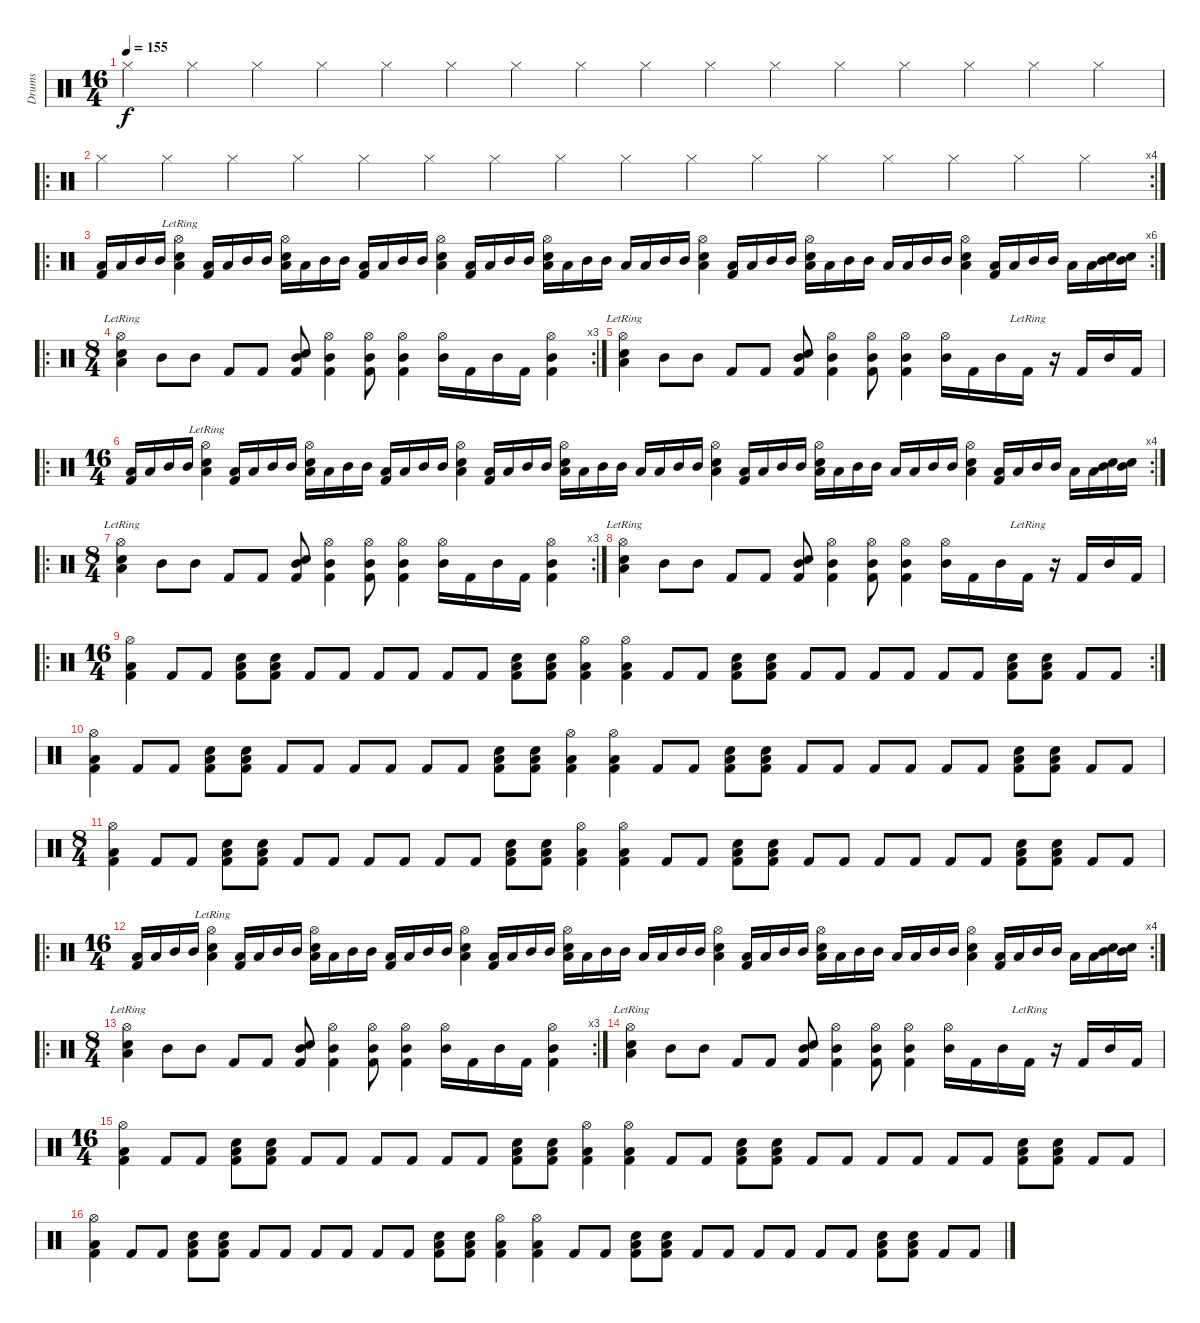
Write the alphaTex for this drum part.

\track ("Drums" "Drums") {instrument percussion}
\staff {score}
\articulation defaults
\ts (16 4)
\tempo 155
\clef neutral
\ks c "Hi-Hat (closed)".4{dy f} "Hi-Hat (closed)".4 "Hi-Hat (closed)".4 "Hi-Hat (closed)".4 "Hi-Hat (closed)".4 "Hi-Hat (closed)".4 "Hi-Hat (closed)".4 "Hi-Hat (closed)".4 "Hi-Hat (closed)".4 "Hi-Hat (closed)".4 "Hi-Hat (closed)".4 "Hi-Hat (closed)".4 "Hi-Hat (closed)".4 "Hi-Hat (closed)".4 "Hi-Hat (closed)".4 "Hi-Hat (closed)".4
|
\ro
\rc 4 "Hi-Hat (closed)".4 "Hi-Hat (closed)".4 "Hi-Hat (closed)".4 "Hi-Hat (closed)".4 "Hi-Hat (closed)".4 "Hi-Hat (closed)".4 "Hi-Hat (closed)".4 "Hi-Hat (closed)".4 "Hi-Hat (closed)".4 "Hi-Hat (closed)".4 "Hi-Hat (closed)".4 "Hi-Hat (closed)".4 "Hi-Hat (closed)".4 "Hi-Hat (closed)".4 "Hi-Hat (closed)".4 "Hi-Hat (closed)".4
|
\ro
\rc 6
("Low Tom (hit)" "Kick (hit) 2").16 "Low Tom (hit)".16 "Mid Tom (hit)".16 "Mid Tom (hit)".16 ("Hi-Hat (open)" "Low Tom (hit)"{lr} "Snare (hit) 2").4 ("Low Tom (hit)" "Kick (hit) 2").16 "Low Tom (hit)".16 "Mid Tom (hit)".16 "Mid Tom (hit)".16 ("Hi-Hat (open)" "Low Tom (hit)" "Snare (hit) 2").16 "Low Tom (hit)".16 "Mid Tom (hit)".16 "Mid Tom (hit)".16 ("Low Tom (hit)" "Kick (hit) 2").16 "Low Tom (hit)".16 "Mid Tom (hit)".16 "Mid Tom (hit)".16 ("Hi-Hat (open)" "Low Tom (hit)" "Snare (hit) 2").4 ("Low Tom (hit)" "Kick (hit) 2").16 "Low Tom (hit)".16 "Mid Tom (hit)".16 "Mid Tom (hit)".16 ("Hi-Hat (open)" "Low Tom (hit)" "Snare (hit) 2").16 "Low Tom (hit)".16 "Mid Tom (hit)".16 "Mid Tom (hit)".16 "Low Tom (hit)".16 "Low Tom (hit)".16 "Mid Tom (hit)".16 "Mid Tom (hit)".16 ("Hi-Hat (open)" "Low Tom (hit)" "Snare (hit) 2").4 ("Low Tom (hit)" "Kick (hit) 2").16 "Low Tom (hit)".16 "Mid Tom (hit)".16 "Mid Tom (hit)".16 ("Hi-Hat (open)" "Low Tom (hit)" "Snare (hit) 2").16 "Low Tom (hit)".16 "Mid Tom (hit)".16 "Mid Tom (hit)".16 "Low Tom (hit)".16 "Low Tom (hit)".16 "Mid Tom (hit)".16 "Mid Tom (hit)".16 ("Hi-Hat (open)" "Low Tom (hit)" "Snare (hit) 2").4 ("Low Tom (hit)" "Kick (hit) 2").16 "Low Tom (hit)".16 "Mid Tom (hit)".16 "Mid Tom (hit)".16 "Low Tom (hit)".16 "Low Tom (hit)".16 ("Mid Tom (hit)" "Snare (hit) 2").16 ("Mid Tom (hit)" "Snare (hit) 2").16 |
\ro
\rc 3
\ts (8 4)
("Hi-Hat (open)"{lr} "Low Tom (hit)"{lr} "Snare (hit) 2"{lr}).4 "Mid Tom (hit)".8 "Mid Tom (hit)".8 "Kick (hit) 2".8 "Kick (hit) 2".8 ("Mid Tom (hit)" "Snare (hit) 2" "Kick (hit) 2").8 ("Hi-Hat (open)" "Mid Tom (hit)" "Kick (hit) 2").4 ("Hi-Hat (open)" "Mid Tom (hit)" "Kick (hit) 2").8 ("Hi-Hat (open)" "Mid Tom (hit)" "Kick (hit) 2").4 ("Hi-Hat (open)" "Mid Tom (hit)").16 "Kick (hit) 2".16 "Mid Tom (hit)".16 "Kick (hit) 2".16 ("Hi-Hat (open)" "Mid Tom (hit)" "Kick (hit) 2").4 |
("Hi-Hat (open)"{lr} "Low Tom (hit)"{lr} "Snare (hit) 2"{lr}).4 "Mid Tom (hit)".8 "Mid Tom (hit)".8 "Kick (hit) 2".8 "Kick (hit) 2".8 ("Mid Tom (hit)" "Snare (hit) 2" "Kick (hit) 2").8 ("Hi-Hat (open)" "Mid Tom (hit)" "Kick (hit) 2").4 ("Hi-Hat (open)" "Mid Tom (hit)" "Kick (hit) 2").8 ("Hi-Hat (open)" "Mid Tom (hit)" "Kick (hit) 2").4 ("Hi-Hat (open)" "Mid Tom (hit)").16 "Kick (hit) 2".16 "Mid Tom (hit)".16 "Kick (hit) 2"{lr}.16 r.16 "Kick (hit) 2".16 "Mid Tom (hit)".16 "Kick (hit) 2".16 |
\ro
\rc 4
\ts (16 4)
("Low Tom (hit)" "Kick (hit) 2").16 "Low Tom (hit)".16 "Mid Tom (hit)".16 "Mid Tom (hit)".16 ("Hi-Hat (open)" "Low Tom (hit)"{lr} "Snare (hit) 2").4 ("Low Tom (hit)" "Kick (hit) 2").16 "Low Tom (hit)".16 "Mid Tom (hit)".16 "Mid Tom (hit)".16 ("Hi-Hat (open)" "Low Tom (hit)" "Snare (hit) 2").16 "Low Tom (hit)".16 "Mid Tom (hit)".16 "Mid Tom (hit)".16 ("Low Tom (hit)" "Kick (hit) 2").16 "Low Tom (hit)".16 "Mid Tom (hit)".16 "Mid Tom (hit)".16 ("Hi-Hat (open)" "Low Tom (hit)" "Snare (hit) 2").4 ("Low Tom (hit)" "Kick (hit) 2").16 "Low Tom (hit)".16 "Mid Tom (hit)".16 "Mid Tom (hit)".16 ("Hi-Hat (open)" "Low Tom (hit)" "Snare (hit) 2").16 "Low Tom (hit)".16 "Mid Tom (hit)".16 "Mid Tom (hit)".16 "Low Tom (hit)".16 "Low Tom (hit)".16 "Mid Tom (hit)".16 "Mid Tom (hit)".16 ("Hi-Hat (open)" "Low Tom (hit)" "Snare (hit) 2").4 ("Low Tom (hit)" "Kick (hit) 2").16 "Low Tom (hit)".16 "Mid Tom (hit)".16 "Mid Tom (hit)".16 ("Hi-Hat (open)" "Low Tom (hit)" "Snare (hit) 2").16 "Low Tom (hit)".16 "Mid Tom (hit)".16 "Mid Tom (hit)".16 "Low Tom (hit)".16 "Low Tom (hit)".16 "Mid Tom (hit)".16 "Mid Tom (hit)".16 ("Hi-Hat (open)" "Low Tom (hit)" "Snare (hit) 2").4 ("Low Tom (hit)" "Kick (hit) 2").16 "Low Tom (hit)".16 "Mid Tom (hit)".16 "Mid Tom (hit)".16 "Low Tom (hit)".16 "Low Tom (hit)".16 ("Mid Tom (hit)" "Snare (hit) 2").16 ("Mid Tom (hit)" "Snare (hit) 2").16 |
\ro
\rc 3
\ts (8 4)
("Hi-Hat (open)"{lr} "Low Tom (hit)"{lr} "Snare (hit) 2"{lr}).4 "Mid Tom (hit)".8 "Mid Tom (hit)".8 "Kick (hit) 2".8 "Kick (hit) 2".8 ("Mid Tom (hit)" "Snare (hit) 2" "Kick (hit) 2").8 ("Hi-Hat (open)" "Mid Tom (hit)" "Kick (hit) 2").4 ("Hi-Hat (open)" "Mid Tom (hit)" "Kick (hit) 2").8 ("Hi-Hat (open)" "Mid Tom (hit)" "Kick (hit) 2").4 ("Hi-Hat (open)" "Mid Tom (hit)").16 "Kick (hit) 2".16 "Mid Tom (hit)".16 "Kick (hit) 2".16 ("Hi-Hat (open)" "Mid Tom (hit)" "Kick (hit) 2").4 |
("Hi-Hat (open)"{lr} "Low Tom (hit)"{lr} "Snare (hit) 2"{lr}).4 "Mid Tom (hit)".8 "Mid Tom (hit)".8 "Kick (hit) 2".8 "Kick (hit) 2".8 ("Mid Tom (hit)" "Snare (hit) 2" "Kick (hit) 2").8 ("Hi-Hat (open)" "Mid Tom (hit)" "Kick (hit) 2").4 ("Hi-Hat (open)" "Mid Tom (hit)" "Kick (hit) 2").8 ("Hi-Hat (open)" "Mid Tom (hit)" "Kick (hit) 2").4 ("Hi-Hat (open)" "Mid Tom (hit)").16 "Kick (hit) 2".16 "Mid Tom (hit)".16 "Kick (hit) 2"{lr}.16 r.16 "Kick (hit) 2".16 "Mid Tom (hit)".16 "Kick (hit) 2".16 |
\ro
\rc 2
\ts (16 4)
("Hi-Hat (open)" "Low Tom (hit)" "Kick (hit) 2").4 "Kick (hit) 2".8 "Kick (hit) 2".8 ("Snare (hit) 2" "Low Tom (hit)" "Kick (hit) 2").8 ("Snare (hit) 2" "Low Tom (hit)" "Kick (hit) 2").8 "Kick (hit) 2".8 "Kick (hit) 2".8 "Kick (hit) 2".8 "Kick (hit) 2".8 "Kick (hit) 2".8 "Kick (hit) 2".8 ("Snare (hit) 2" "Low Tom (hit)" "Kick (hit) 2").8 ("Snare (hit) 2" "Low Tom (hit)" "Kick (hit) 2").8 ("Hi-Hat (open)" "Low Tom (hit)" "Kick (hit) 2").4 ("Hi-Hat (open)" "Low Tom (hit)" "Kick (hit) 2").4 "Kick (hit) 2".8 "Kick (hit) 2".8 ("Snare (hit) 2" "Low Tom (hit)" "Kick (hit) 2").8 ("Snare (hit) 2" "Low Tom (hit)" "Kick (hit) 2").8 "Kick (hit) 2".8 "Kick (hit) 2".8 "Kick (hit) 2".8 "Kick (hit) 2".8 "Kick (hit) 2".8 "Kick (hit) 2".8 ("Snare (hit) 2" "Low Tom (hit)" "Kick (hit) 2").8 ("Snare (hit) 2" "Low Tom (hit)" "Kick (hit) 2").8 "Kick (hit) 2".8 "Kick (hit) 2".8 |
("Hi-Hat (open)" "Low Tom (hit)" "Kick (hit) 2").4 "Kick (hit) 2".8 "Kick (hit) 2".8 ("Snare (hit) 2" "Low Tom (hit)" "Kick (hit) 2").8 ("Snare (hit) 2" "Low Tom (hit)" "Kick (hit) 2").8 "Kick (hit) 2".8 "Kick (hit) 2".8 "Kick (hit) 2".8 "Kick (hit) 2".8 "Kick (hit) 2".8 "Kick (hit) 2".8 ("Snare (hit) 2" "Low Tom (hit)" "Kick (hit) 2").8 ("Snare (hit) 2" "Low Tom (hit)" "Kick (hit) 2").8 ("Hi-Hat (open)" "Low Tom (hit)" "Kick (hit) 2").4 ("Hi-Hat (open)" "Low Tom (hit)" "Kick (hit) 2").4 "Kick (hit) 2".8 "Kick (hit) 2".8 ("Snare (hit) 2" "Low Tom (hit)" "Kick (hit) 2").8 ("Snare (hit) 2" "Low Tom (hit)" "Kick (hit) 2").8 "Kick (hit) 2".8 "Kick (hit) 2".8 "Kick (hit) 2".8 "Kick (hit) 2".8 "Kick (hit) 2".8 "Kick (hit) 2".8 ("Snare (hit) 2" "Low Tom (hit)" "Kick (hit) 2").8 ("Snare (hit) 2" "Low Tom (hit)" "Kick (hit) 2").8 "Kick (hit) 2".8 "Kick (hit) 2".8 |
\ts (8 4)
("Hi-Hat (open)" "Low Tom (hit)" "Kick (hit) 2").4 "Kick (hit) 2".8 "Kick (hit) 2".8 ("Snare (hit) 2" "Low Tom (hit)" "Kick (hit) 2").8 ("Snare (hit) 2" "Low Tom (hit)" "Kick (hit) 2").8 "Kick (hit) 2".8 "Kick (hit) 2".8 "Kick (hit) 2".8 "Kick (hit) 2".8 "Kick (hit) 2".8 "Kick (hit) 2".8 ("Snare (hit) 2" "Low Tom (hit)" "Kick (hit) 2").8 ("Snare (hit) 2" "Low Tom (hit)" "Kick (hit) 2").8 ("Hi-Hat (open)" "Low Tom (hit)" "Kick (hit) 2").4 ("Hi-Hat (open)" "Low Tom (hit)" "Kick (hit) 2").4 "Kick (hit) 2".8 "Kick (hit) 2".8 ("Snare (hit) 2" "Low Tom (hit)" "Kick (hit) 2").8 ("Snare (hit) 2" "Low Tom (hit)" "Kick (hit) 2").8 "Kick (hit) 2".8 "Kick (hit) 2".8 "Kick (hit) 2".8 "Kick (hit) 2".8 "Kick (hit) 2".8 "Kick (hit) 2".8 ("Snare (hit) 2" "Low Tom (hit)" "Kick (hit) 2").8 ("Snare (hit) 2" "Low Tom (hit)" "Kick (hit) 2").8 "Kick (hit) 2".8 "Kick (hit) 2".8 |
\ro
\rc 4
\ts (16 4)
("Low Tom (hit)" "Kick (hit) 2").16 "Low Tom (hit)".16 "Mid Tom (hit)".16 "Mid Tom (hit)".16 ("Hi-Hat (open)" "Low Tom (hit)"{lr} "Snare (hit) 2").4 ("Low Tom (hit)" "Kick (hit) 2").16 "Low Tom (hit)".16 "Mid Tom (hit)".16 "Mid Tom (hit)".16 ("Hi-Hat (open)" "Low Tom (hit)" "Snare (hit) 2").16 "Low Tom (hit)".16 "Mid Tom (hit)".16 "Mid Tom (hit)".16 ("Low Tom (hit)" "Kick (hit) 2").16 "Low Tom (hit)".16 "Mid Tom (hit)".16 "Mid Tom (hit)".16 ("Hi-Hat (open)" "Low Tom (hit)" "Snare (hit) 2").4 ("Low Tom (hit)" "Kick (hit) 2").16 "Low Tom (hit)".16 "Mid Tom (hit)".16 "Mid Tom (hit)".16 ("Hi-Hat (open)" "Low Tom (hit)" "Snare (hit) 2").16 "Low Tom (hit)".16 "Mid Tom (hit)".16 "Mid Tom (hit)".16 "Low Tom (hit)".16 "Low Tom (hit)".16 "Mid Tom (hit)".16 "Mid Tom (hit)".16 ("Hi-Hat (open)" "Low Tom (hit)" "Snare (hit) 2").4 ("Low Tom (hit)" "Kick (hit) 2").16 "Low Tom (hit)".16 "Mid Tom (hit)".16 "Mid Tom (hit)".16 ("Hi-Hat (open)" "Low Tom (hit)" "Snare (hit) 2").16 "Low Tom (hit)".16 "Mid Tom (hit)".16 "Mid Tom (hit)".16 "Low Tom (hit)".16 "Low Tom (hit)".16 "Mid Tom (hit)".16 "Mid Tom (hit)".16 ("Hi-Hat (open)" "Low Tom (hit)" "Snare (hit) 2").4 ("Low Tom (hit)" "Kick (hit) 2").16 "Low Tom (hit)".16 "Mid Tom (hit)".16 "Mid Tom (hit)".16 "Low Tom (hit)".16 "Low Tom (hit)".16 ("Mid Tom (hit)" "Snare (hit) 2").16 ("Mid Tom (hit)" "Snare (hit) 2").16 |
\ro
\rc 3
\ts (8 4)
("Hi-Hat (open)"{lr} "Low Tom (hit)"{lr} "Snare (hit) 2"{lr}).4 "Mid Tom (hit)".8 "Mid Tom (hit)".8 "Kick (hit) 2".8 "Kick (hit) 2".8 ("Mid Tom (hit)" "Snare (hit) 2" "Kick (hit) 2").8 ("Hi-Hat (open)" "Mid Tom (hit)" "Kick (hit) 2").4 ("Hi-Hat (open)" "Mid Tom (hit)" "Kick (hit) 2").8 ("Hi-Hat (open)" "Mid Tom (hit)" "Kick (hit) 2").4 ("Hi-Hat (open)" "Mid Tom (hit)").16 "Kick (hit) 2".16 "Mid Tom (hit)".16 "Kick (hit) 2".16 ("Hi-Hat (open)" "Mid Tom (hit)" "Kick (hit) 2").4 |
("Hi-Hat (open)"{lr} "Low Tom (hit)"{lr} "Snare (hit) 2"{lr}).4 "Mid Tom (hit)".8 "Mid Tom (hit)".8 "Kick (hit) 2".8 "Kick (hit) 2".8 ("Mid Tom (hit)" "Snare (hit) 2" "Kick (hit) 2").8 ("Hi-Hat (open)" "Mid Tom (hit)" "Kick (hit) 2").4 ("Hi-Hat (open)" "Mid Tom (hit)" "Kick (hit) 2").8 ("Hi-Hat (open)" "Mid Tom (hit)" "Kick (hit) 2").4 ("Hi-Hat (open)" "Mid Tom (hit)").16 "Kick (hit) 2".16 "Mid Tom (hit)".16 "Kick (hit) 2"{lr}.16 r.16 "Kick (hit) 2".16 "Mid Tom (hit)".16 "Kick (hit) 2".16 |
\ts (16 4)
("Hi-Hat (open)" "Low Tom (hit)" "Kick (hit) 2").4 "Kick (hit) 2".8 "Kick (hit) 2".8 ("Snare (hit) 2" "Low Tom (hit)" "Kick (hit) 2").8 ("Snare (hit) 2" "Low Tom (hit)" "Kick (hit) 2").8 "Kick (hit) 2".8 "Kick (hit) 2".8 "Kick (hit) 2".8 "Kick (hit) 2".8 "Kick (hit) 2".8 "Kick (hit) 2".8 ("Snare (hit) 2" "Low Tom (hit)" "Kick (hit) 2").8 ("Snare (hit) 2" "Low Tom (hit)" "Kick (hit) 2").8 ("Hi-Hat (open)" "Low Tom (hit)" "Kick (hit) 2").4 ("Hi-Hat (open)" "Low Tom (hit)" "Kick (hit) 2").4 "Kick (hit) 2".8 "Kick (hit) 2".8 ("Snare (hit) 2" "Low Tom (hit)" "Kick (hit) 2").8 ("Snare (hit) 2" "Low Tom (hit)" "Kick (hit) 2").8 "Kick (hit) 2".8 "Kick (hit) 2".8 "Kick (hit) 2".8 "Kick (hit) 2".8 "Kick (hit) 2".8 "Kick (hit) 2".8 ("Snare (hit) 2" "Low Tom (hit)" "Kick (hit) 2").8 ("Snare (hit) 2" "Low Tom (hit)" "Kick (hit) 2").8 "Kick (hit) 2".8 "Kick (hit) 2".8 |
("Hi-Hat (open)" "Low Tom (hit)" "Kick (hit) 2").4 "Kick (hit) 2".8 "Kick (hit) 2".8 ("Snare (hit) 2" "Low Tom (hit)" "Kick (hit) 2").8 ("Snare (hit) 2" "Low Tom (hit)" "Kick (hit) 2").8 "Kick (hit) 2".8 "Kick (hit) 2".8 "Kick (hit) 2".8 "Kick (hit) 2".8 "Kick (hit) 2".8 "Kick (hit) 2".8 ("Snare (hit) 2" "Low Tom (hit)" "Kick (hit) 2").8 ("Snare (hit) 2" "Low Tom (hit)" "Kick (hit) 2").8 ("Hi-Hat (open)" "Low Tom (hit)" "Kick (hit) 2").4 ("Hi-Hat (open)" "Low Tom (hit)" "Kick (hit) 2").4 "Kick (hit) 2".8 "Kick (hit) 2".8 ("Snare (hit) 2" "Low Tom (hit)" "Kick (hit) 2").8 ("Snare (hit) 2" "Low Tom (hit)" "Kick (hit) 2").8 "Kick (hit) 2".8 "Kick (hit) 2".8 "Kick (hit) 2".8 "Kick (hit) 2".8 "Kick (hit) 2".8 "Kick (hit) 2".8 ("Snare (hit) 2" "Low Tom (hit)" "Kick (hit) 2").8 ("Snare (hit) 2" "Low Tom (hit)" "Kick (hit) 2").8 "Kick (hit) 2".8 "Kick (hit) 2".8
